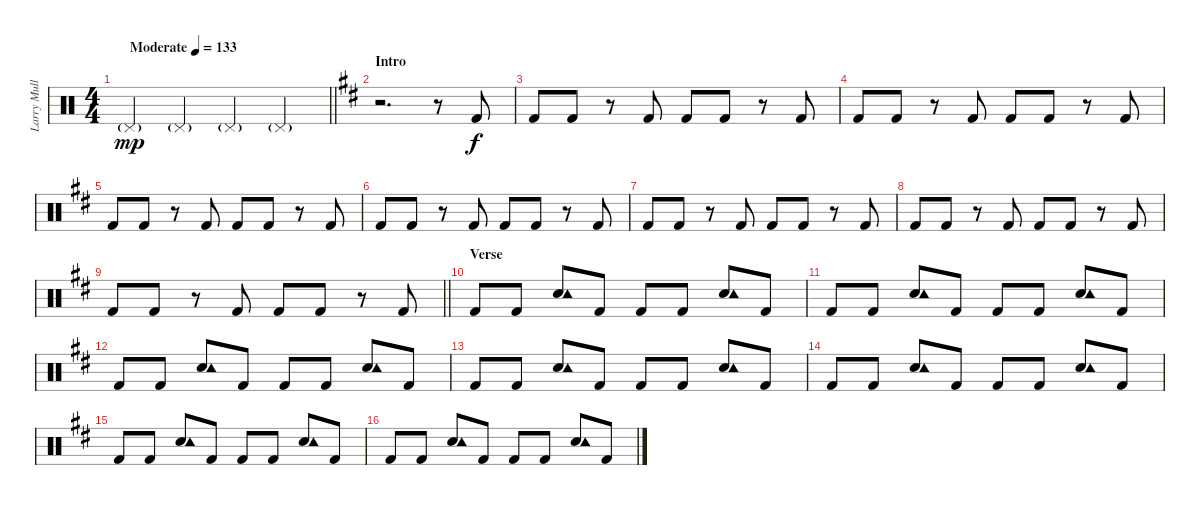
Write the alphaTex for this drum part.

\track ("Larry Mullen Jr." "Larry Mull") {instrument percussion}
\staff {score}
\articulation defaults
\ts (4 4)
\tempo (133 "Moderate")
\clef neutral
\barLineRight lightlight
\ks c "Pedal Hi-Hat (hit)"{g}.4{dy mp} "Pedal Hi-Hat (hit)"{g}.4 "Pedal Hi-Hat (hit)"{g}.4 "Pedal Hi-Hat (hit)"{g}.4
|
\section ("" "Intro")
\ks d
r.2{d} r.8 "Kick (hit) 2".8{dy f} |
"Kick (hit) 2".8 "Kick (hit) 2".8 r.8 "Kick (hit) 2".8 "Kick (hit) 2".8 "Kick (hit) 2".8 r.8 "Kick (hit) 2".8 |
"Kick (hit) 2".8 "Kick (hit) 2".8 r.8 "Kick (hit) 2".8 "Kick (hit) 2".8 "Kick (hit) 2".8 r.8 "Kick (hit) 2".8 |
"Kick (hit) 2".8 "Kick (hit) 2".8 r.8 "Kick (hit) 2".8 "Kick (hit) 2".8 "Kick (hit) 2".8 r.8 "Kick (hit) 2".8 |
"Kick (hit) 2".8 "Kick (hit) 2".8 r.8 "Kick (hit) 2".8 "Kick (hit) 2".8 "Kick (hit) 2".8 r.8 "Kick (hit) 2".8 |
"Kick (hit) 2".8 "Kick (hit) 2".8 r.8 "Kick (hit) 2".8 "Kick (hit) 2".8 "Kick (hit) 2".8 r.8 "Kick (hit) 2".8 |
"Kick (hit) 2".8 "Kick (hit) 2".8 r.8 "Kick (hit) 2".8 "Kick (hit) 2".8 "Kick (hit) 2".8 r.8 "Kick (hit) 2".8 |
\barLineRight lightlight "Kick (hit) 2".8 "Kick (hit) 2".8
r.8 "Kick (hit) 2".8 "Kick (hit) 2".8 "Kick (hit) 2".8 r.8 "Kick (hit) 2".8 |
\section ("" "Verse")
"Kick (hit) 2".8 "Kick (hit) 2".8 ("Snare (hit) 2" "Tambourine (hit)").8 "Kick (hit) 2".8 "Kick (hit) 2".8 "Kick (hit) 2".8 ("Snare (hit) 2" "Tambourine (hit)").8 "Kick (hit) 2".8 |
"Kick (hit) 2".8 "Kick (hit) 2".8 ("Snare (hit) 2" "Tambourine (hit)").8 "Kick (hit) 2".8 "Kick (hit) 2".8 "Kick (hit) 2".8 ("Snare (hit) 2" "Tambourine (hit)").8 "Kick (hit) 2".8 |
"Kick (hit) 2".8 "Kick (hit) 2".8 ("Snare (hit) 2" "Tambourine (hit)").8 "Kick (hit) 2".8 "Kick (hit) 2".8 "Kick (hit) 2".8 ("Snare (hit) 2" "Tambourine (hit)").8 "Kick (hit) 2".8 |
"Kick (hit) 2".8 "Kick (hit) 2".8 ("Snare (hit) 2" "Tambourine (hit)").8 "Kick (hit) 2".8 "Kick (hit) 2".8 "Kick (hit) 2".8 ("Snare (hit) 2" "Tambourine (hit)").8 "Kick (hit) 2".8 |
"Kick (hit) 2".8 "Kick (hit) 2".8 ("Snare (hit) 2" "Tambourine (hit)").8 "Kick (hit) 2".8 "Kick (hit) 2".8 "Kick (hit) 2".8 ("Snare (hit) 2" "Tambourine (hit)").8 "Kick (hit) 2".8 |
"Kick (hit) 2".8 "Kick (hit) 2".8 ("Snare (hit) 2" "Tambourine (hit)").8 "Kick (hit) 2".8 "Kick (hit) 2".8 "Kick (hit) 2".8 ("Snare (hit) 2" "Tambourine (hit)").8 "Kick (hit) 2".8 |
"Kick (hit) 2".8 "Kick (hit) 2".8 ("Snare (hit) 2" "Tambourine (hit)").8 "Kick (hit) 2".8 "Kick (hit) 2".8 "Kick (hit) 2".8 ("Snare (hit) 2" "Tambourine (hit)").8 "Kick (hit) 2".8
